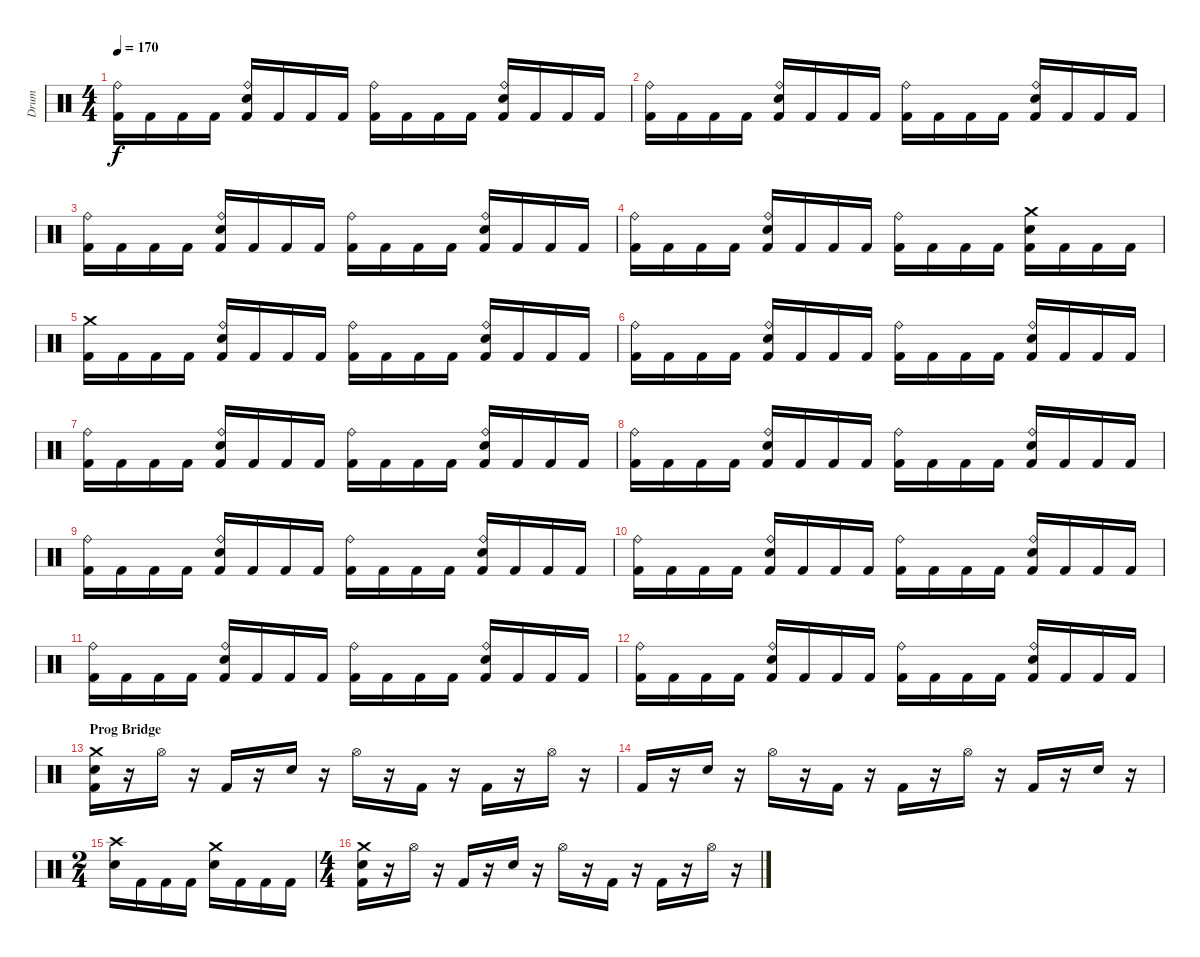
\track ("Drum" "Drum") {instrument percussion}
\staff {score}
\articulation defaults
\ts (4 4)
\tempo 170
\clef neutral
\ks c
("Kick (hit) 2" "Ride (bell)").16{dy f} "Kick (hit) 2".16 "Kick (hit) 2".16 "Kick (hit) 2".16 ("Electric Snare (hit)" "Kick (hit) 2" "Ride (bell)").16 "Kick (hit) 2".16 "Kick (hit) 2".16 "Kick (hit) 2".16 ("Kick (hit) 2" "Ride (bell)").16 "Kick (hit) 2".16 "Kick (hit) 2".16 "Kick (hit) 2".16 ("Electric Snare (hit)" "Kick (hit) 2" "Ride (bell)").16 "Kick (hit) 2".16 "Kick (hit) 2".16 "Kick (hit) 2".16 |
("Kick (hit) 2" "Ride (bell)").16 "Kick (hit) 2".16 "Kick (hit) 2".16 "Kick (hit) 2".16 ("Kick (hit) 2" "Electric Snare (hit)" "Ride (bell)").16 "Kick (hit) 2".16 "Kick (hit) 2".16 "Kick (hit) 2".16 ("Kick (hit) 2" "Ride (bell)").16 "Kick (hit) 2".16 "Kick (hit) 2".16 "Kick (hit) 2".16 ("Electric Snare (hit)" "Kick (hit) 2" "Ride (bell)").16 "Kick (hit) 2".16 "Kick (hit) 2".16 "Kick (hit) 2".16 |
("Kick (hit) 2" "Ride (bell)").16 "Kick (hit) 2".16 "Kick (hit) 2".16 "Kick (hit) 2".16 ("Electric Snare (hit)" "Kick (hit) 2" "Ride (bell)").16 "Kick (hit) 2".16 "Kick (hit) 2".16 "Kick (hit) 2".16 ("Kick (hit) 2" "Ride (bell)").16 "Kick (hit) 2".16 "Kick (hit) 2".16 "Kick (hit) 2".16 ("Kick (hit) 2" "Electric Snare (hit)" "Ride (bell)").16 "Kick (hit) 2".16 "Kick (hit) 2".16 "Kick (hit) 2".16 |
("Kick (hit) 2" "Ride (bell)").16 "Kick (hit) 2".16 "Kick (hit) 2".16 "Kick (hit) 2".16 ("Kick (hit) 2" "Electric Snare (hit)" "Ride (bell)").16 "Kick (hit) 2".16 "Kick (hit) 2".16 "Kick (hit) 2".16 ("Kick (hit) 2" "Ride (bell)").16 "Kick (hit) 2".16 "Kick (hit) 2".16 "Kick (hit) 2".16 ("Kick (hit) 2" "Electric Snare (hit)" "Crash medium (hit)").16 "Kick (hit) 2".16 "Kick (hit) 2".16 "Kick (hit) 2".16 |
\section ("" "")
("Kick (hit) 2" "Crash medium (hit)").16 "Kick (hit) 2".16 "Kick (hit) 2".16 "Kick (hit) 2".16 ("Electric Snare (hit)" "Kick (hit) 2" "Ride (bell)").16 "Kick (hit) 2".16 "Kick (hit) 2".16 "Kick (hit) 2".16 ("Kick (hit) 2" "Ride (bell)").16 "Kick (hit) 2".16 "Kick (hit) 2".16 "Kick (hit) 2".16 ("Kick (hit) 2" "Electric Snare (hit)" "Ride (bell)").16 "Kick (hit) 2".16 "Kick (hit) 2".16 "Kick (hit) 2".16 |
("Kick (hit) 2" "Ride (bell)").16 "Kick (hit) 2".16 "Kick (hit) 2".16 "Kick (hit) 2".16 ("Kick (hit) 2" "Electric Snare (hit)" "Ride (bell)").16 "Kick (hit) 2".16 "Kick (hit) 2".16 "Kick (hit) 2".16 ("Kick (hit) 2" "Ride (bell)").16 "Kick (hit) 2".16 "Kick (hit) 2".16 "Kick (hit) 2".16 ("Kick (hit) 2" "Electric Snare (hit)" "Ride (bell)").16 "Kick (hit) 2".16 "Kick (hit) 2".16 "Kick (hit) 2".16 |
("Kick (hit) 2" "Ride (bell)").16 "Kick (hit) 2".16 "Kick (hit) 2".16 "Kick (hit) 2".16 ("Kick (hit) 2" "Electric Snare (hit)" "Ride (bell)").16 "Kick (hit) 2".16 "Kick (hit) 2".16 "Kick (hit) 2".16 ("Kick (hit) 2" "Ride (bell)").16 "Kick (hit) 2".16 "Kick (hit) 2".16 "Kick (hit) 2".16 ("Kick (hit) 2" "Electric Snare (hit)" "Ride (bell)").16 "Kick (hit) 2".16 "Kick (hit) 2".16 "Kick (hit) 2".16 |
("Kick (hit) 2" "Ride (bell)").16 "Kick (hit) 2".16 "Kick (hit) 2".16 "Kick (hit) 2".16 ("Kick (hit) 2" "Electric Snare (hit)" "Ride (bell)").16 "Kick (hit) 2".16 "Kick (hit) 2".16 "Kick (hit) 2".16 ("Kick (hit) 2" "Ride (bell)").16 "Kick (hit) 2".16 "Kick (hit) 2".16 "Kick (hit) 2".16 ("Electric Snare (hit)" "Kick (hit) 2" "Ride (bell)").16 "Kick (hit) 2".16 "Kick (hit) 2".16 "Kick (hit) 2".16 |
("Kick (hit) 2" "Ride (bell)").16 "Kick (hit) 2".16 "Kick (hit) 2".16 "Kick (hit) 2".16 ("Electric Snare (hit)" "Kick (hit) 2" "Ride (bell)").16 "Kick (hit) 2".16 "Kick (hit) 2".16 "Kick (hit) 2".16 ("Kick (hit) 2" "Ride (bell)").16 "Kick (hit) 2".16 "Kick (hit) 2".16 "Kick (hit) 2".16 ("Electric Snare (hit)" "Kick (hit) 2" "Ride (bell)").16 "Kick (hit) 2".16 "Kick (hit) 2".16 "Kick (hit) 2".16 |
("Kick (hit) 2" "Ride (bell)").16 "Kick (hit) 2".16 "Kick (hit) 2".16 "Kick (hit) 2".16 ("Kick (hit) 2" "Electric Snare (hit)" "Ride (bell)").16 "Kick (hit) 2".16 "Kick (hit) 2".16 "Kick (hit) 2".16 ("Kick (hit) 2" "Ride (bell)").16 "Kick (hit) 2".16 "Kick (hit) 2".16 "Kick (hit) 2".16 ("Kick (hit) 2" "Electric Snare (hit)" "Ride (bell)").16 "Kick (hit) 2".16 "Kick (hit) 2".16 "Kick (hit) 2".16 |
("Kick (hit) 2" "Ride (bell)").16 "Kick (hit) 2".16 "Kick (hit) 2".16 "Kick (hit) 2".16 ("Electric Snare (hit)" "Kick (hit) 2" "Ride (bell)").16 "Kick (hit) 2".16 "Kick (hit) 2".16 "Kick (hit) 2".16 ("Kick (hit) 2" "Ride (bell)").16 "Kick (hit) 2".16 "Kick (hit) 2".16 "Kick (hit) 2".16 ("Electric Snare (hit)" "Kick (hit) 2" "Ride (bell)").16 "Kick (hit) 2".16 "Kick (hit) 2".16 "Kick (hit) 2".16 |
("Kick (hit) 2" "Ride (bell)").16 "Kick (hit) 2".16 "Kick (hit) 2".16 "Kick (hit) 2".16 ("Electric Snare (hit)" "Kick (hit) 2" "Ride (bell)").16 "Kick (hit) 2".16 "Kick (hit) 2".16 "Kick (hit) 2".16 ("Kick (hit) 2" "Ride (bell)").16 "Kick (hit) 2".16 "Kick (hit) 2".16 "Kick (hit) 2".16 ("Electric Snare (hit)" "Kick (hit) 2" "Ride (bell)").16 "Kick (hit) 2".16 "Kick (hit) 2".16 "Kick (hit) 2".16 |
\section ("" "Prog Bridge")
("Kick (hit) 2" "Electric Snare (hit)" "Crash medium (hit)").16 r.16 "Hi-Hat (open)".16 r.16 "Kick (hit) 2".16 r.16 "Electric Snare (hit)".16 r.16 "Hi-Hat (open)".16 r.16 "Kick (hit) 2".16 r.16 "Kick (hit) 2".16 r.16 "Hi-Hat (open)".16 r.16 |
"Kick (hit) 2".16 r.16 "Electric Snare (hit)".16 r.16 "Hi-Hat (open)".16 r.16 "Kick (hit) 2".16 r.16 "Kick (hit) 2".16 r.16 "Hi-Hat (open)".16 r.16 "Kick (hit) 2".16 r.16 "Electric Snare (hit)".16 r.16 |
\ts (2 4)
("Electric Snare (hit)" "Crash high (hit)").16 "Kick (hit) 2".16 "Kick (hit) 2".16 "Kick (hit) 2".16 ("Electric Snare (hit)" "Crash medium (hit)").16 "Kick (hit) 2".16 "Kick (hit) 2".16 "Kick (hit) 2".16 |
\ts (4 4)
("Kick (hit) 2" "Electric Snare (hit)" "Crash medium (hit)").16 r.16 "Hi-Hat (open)".16 r.16 "Kick (hit) 2".16 r.16 "Electric Snare (hit)".16 r.16 "Hi-Hat (open)".16 r.16 "Kick (hit) 2".16 r.16 "Kick (hit) 2".16 r.16 "Hi-Hat (open)".16 r.16
